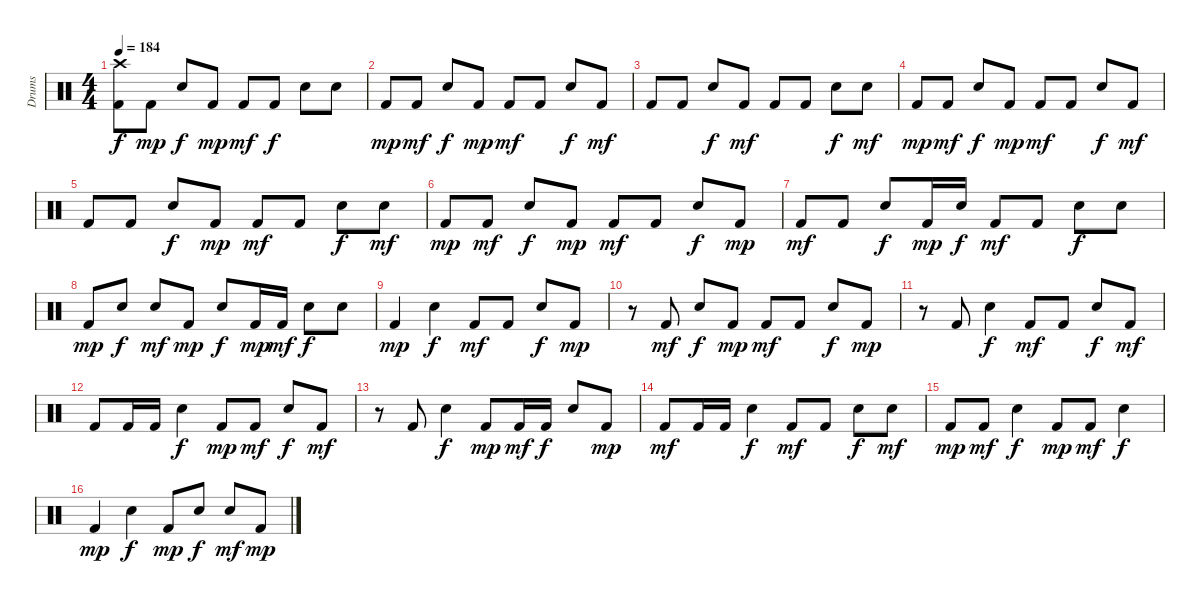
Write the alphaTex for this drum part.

\track ("Drums" "Drums") {instrument percussion}
\staff {score}
\articulation defaults
\ts (4 4)
\tempo 184
\clef neutral
\ks c
("Kick (hit) 2" "Crash high (hit)").8{dy f} "Kick (hit) 2".8{dy mp} "Snare (hit) 2".8{dy f} "Kick (hit) 2".8{dy mp} "Kick (hit) 2".8{dy mf} "Kick (hit) 2".8{dy f} "Snare (hit) 2".8 "Snare (hit) 2".8 |
"Kick (hit) 2".8{dy mp} "Kick (hit) 2".8{dy mf} "Snare (hit) 2".8{dy f} "Kick (hit) 2".8{dy mp} "Kick (hit) 2".8{dy mf} "Kick (hit) 2".8 "Snare (hit) 2".8{dy f} "Kick (hit) 2".8{dy mf} |
"Kick (hit) 2".8 "Kick (hit) 2".8 "Snare (hit) 2".8{dy f} "Kick (hit) 2".8{dy mf} "Kick (hit) 2".8 "Kick (hit) 2".8 "Snare (hit) 2".8{dy f} "Snare (hit) 2".8{dy mf} |
"Kick (hit) 2".8{dy mp} "Kick (hit) 2".8{dy mf} "Snare (hit) 2".8{dy f} "Kick (hit) 2".8{dy mp} "Kick (hit) 2".8{dy mf} "Kick (hit) 2".8 "Snare (hit) 2".8{dy f} "Kick (hit) 2".8{dy mf} |
"Kick (hit) 2".8 "Kick (hit) 2".8 "Snare (hit) 2".8{dy f} "Kick (hit) 2".8{dy mp} "Kick (hit) 2".8{dy mf} "Kick (hit) 2".8 "Snare (hit) 2".8{dy f} "Snare (hit) 2".8{dy mf} |
"Kick (hit) 2".8{dy mp} "Kick (hit) 2".8{dy mf} "Snare (hit) 2".8{dy f} "Kick (hit) 2".8{dy mp} "Kick (hit) 2".8{dy mf} "Kick (hit) 2".8 "Snare (hit) 2".8{dy f} "Kick (hit) 2".8{dy mp} |
"Kick (hit) 2".8{dy mf} "Kick (hit) 2".8 "Snare (hit) 2".8{dy f} "Kick (hit) 2".16{dy mp} "Snare (hit) 2".16{dy f} "Kick (hit) 2".8{dy mf} "Kick (hit) 2".8 "Snare (hit) 2".8{dy f} "Snare (hit) 2".8 |
"Kick (hit) 2".8{dy mp} "Snare (hit) 2".8{dy f} "Snare (hit) 2".8{dy mf} "Kick (hit) 2".8{dy mp} "Snare (hit) 2".8{dy f} "Kick (hit) 2".16{dy mp} "Kick (hit) 2".16{dy mf} "Snare (hit) 2".8{dy f} "Snare (hit) 2".8 |
"Kick (hit) 2".4{dy mp} "Snare (hit) 2".4{dy f} "Kick (hit) 2".8{dy mf} "Kick (hit) 2".8 "Snare (hit) 2".8{dy f} "Kick (hit) 2".8{dy mp} |
r.8 "Kick (hit) 2".8{dy mf} "Snare (hit) 2".8{dy f} "Kick (hit) 2".8{dy mp} "Kick (hit) 2".8{dy mf} "Kick (hit) 2".8 "Snare (hit) 2".8{dy f} "Kick (hit) 2".8{dy mp} |
r.8 "Kick (hit) 2".8 "Snare (hit) 2".4{dy f} "Kick (hit) 2".8{dy mf} "Kick (hit) 2".8 "Snare (hit) 2".8{dy f} "Kick (hit) 2".8{dy mf} |
"Kick (hit) 2".8 "Kick (hit) 2".16 "Kick (hit) 2".16 "Snare (hit) 2".4{dy f} "Kick (hit) 2".8{dy mp} "Kick (hit) 2".8{dy mf} "Snare (hit) 2".8{dy f} "Kick (hit) 2".8{dy mf} |
r.8 "Kick (hit) 2".8 "Snare (hit) 2".4{dy f} "Kick (hit) 2".8{dy mp} "Kick (hit) 2".16{dy mf} "Kick (hit) 2".16{dy f} "Snare (hit) 2".8 "Kick (hit) 2".8{dy mp} |
"Kick (hit) 2".8{dy mf} "Kick (hit) 2".16 "Kick (hit) 2".16 "Snare (hit) 2".4{dy f} "Kick (hit) 2".8{dy mf} "Kick (hit) 2".8 "Snare (hit) 2".8{dy f} "Snare (hit) 2".8{dy mf} |
"Kick (hit) 2".8{dy mp} "Kick (hit) 2".8{dy mf} "Snare (hit) 2".4{dy f} "Kick (hit) 2".8{dy mp} "Kick (hit) 2".8{dy mf} "Snare (hit) 2".4{dy f} |
"Kick (hit) 2".4{dy mp} "Snare (hit) 2".4{dy f} "Kick (hit) 2".8{dy mp} "Snare (hit) 2".8{dy f} "Snare (hit) 2".8{dy mf} "Kick (hit) 2".8{dy mp}
